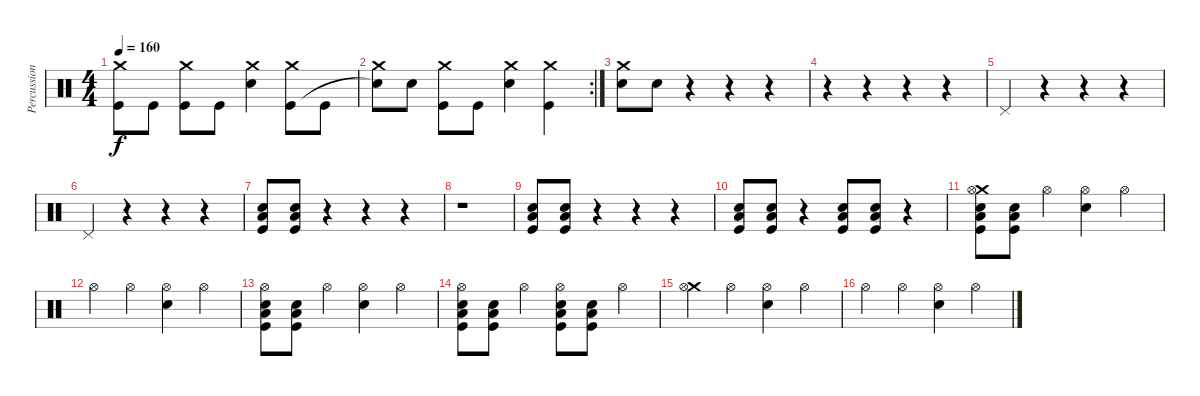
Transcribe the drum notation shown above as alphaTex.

\track ("Percussion" "Percussion") {instrument percussion}
\staff {score}
\articulation defaults
\ts (4 4)
\tempo 160
\clef neutral
\ks c
("Crash medium (hit)" "Kick (hit)").8{dy f} "Kick (hit)".8 ("Crash medium (hit)" "Kick (hit)").8 "Kick (hit)".8 ("Crash medium (hit)" "Electric Snare (hit)").4 ("Crash medium (hit)" "Kick (hit)").8 "Kick (hit)".8 |
\rc 2
("Crash medium (hit)" "Snare (hit)"{t}).8 "Electric Snare (hit)".8 ("Crash medium (hit)" "Kick (hit)").8 "Kick (hit)".8 ("Crash medium (hit)" "Electric Snare (hit)").4 ("Crash medium (hit)" "Kick (hit)").4 |
("Crash medium (hit)" "Electric Snare (hit)").8 "Electric Snare (hit)".8 r.4 r.4 r.4 |
r.4 r.4 r.4 r.4 |
"Pedal Hi-Hat (hit)".4 r.4 r.4 r.4 |
"Pedal Hi-Hat (hit)".4 r.4 r.4 r.4 |
("Electric Snare (hit)" "Low Tom (hit)" "Kick (hit)").8 ("Electric Snare (hit)" "Low Tom (hit)" "Kick (hit)").8 r.4 r.4 r.4 |
r.1 |
("Electric Snare (hit)" "Low Tom (hit)" "Kick (hit)").8 ("Electric Snare (hit)" "Low Tom (hit)" "Kick (hit)").8 r.4 r.4 r.4 |
("Electric Snare (hit)" "Low Tom (hit)" "Kick (hit)").8 ("Electric Snare (hit)" "Low Tom (hit)" "Kick (hit)").8 r.4 ("Electric Snare (hit)" "Low Tom (hit)" "Kick (hit)").8 ("Electric Snare (hit)" "Low Tom (hit)" "Kick (hit)").8 r.4 |
("Crash medium (hit)" "Hi-Hat (open)" "Electric Snare (hit)" "Low Tom (hit)" "Kick (hit)").8 ("Electric Snare (hit)" "Low Tom (hit)" "Kick (hit)").8 "Hi-Hat (open)".4 ("Hi-Hat (open)" "Electric Snare (hit)").4 "Hi-Hat (open)".4 |
"Hi-Hat (open)".4 "Hi-Hat (open)".4 ("Hi-Hat (open)" "Electric Snare (hit)").4 "Hi-Hat (open)".4 |
("Hi-Hat (open)" "Low Tom (hit)" "Electric Snare (hit)" "Kick (hit)").8 ("Low Tom (hit)" "Electric Snare (hit)" "Kick (hit)").8 "Hi-Hat (open)".4 ("Hi-Hat (open)" "Electric Snare (hit)").4 "Hi-Hat (open)".4 |
("Hi-Hat (open)" "Electric Snare (hit)" "Low Tom (hit)" "Kick (hit)").8 ("Electric Snare (hit)" "Low Tom (hit)" "Kick (hit)").8 "Hi-Hat (open)".4 ("Hi-Hat (open)" "Electric Snare (hit)" "Low Tom (hit)" "Kick (hit)").8 ("Electric Snare (hit)" "Low Tom (hit)" "Kick (hit)").8 "Hi-Hat (open)".4 |
("Crash medium (hit)" "Hi-Hat (open)").4 "Hi-Hat (open)".4 ("Hi-Hat (open)" "Electric Snare (hit)").4 "Hi-Hat (open)".4 |
"Hi-Hat (open)".4 "Hi-Hat (open)".4 ("Hi-Hat (open)" "Electric Snare (hit)").4 "Hi-Hat (open)".4
